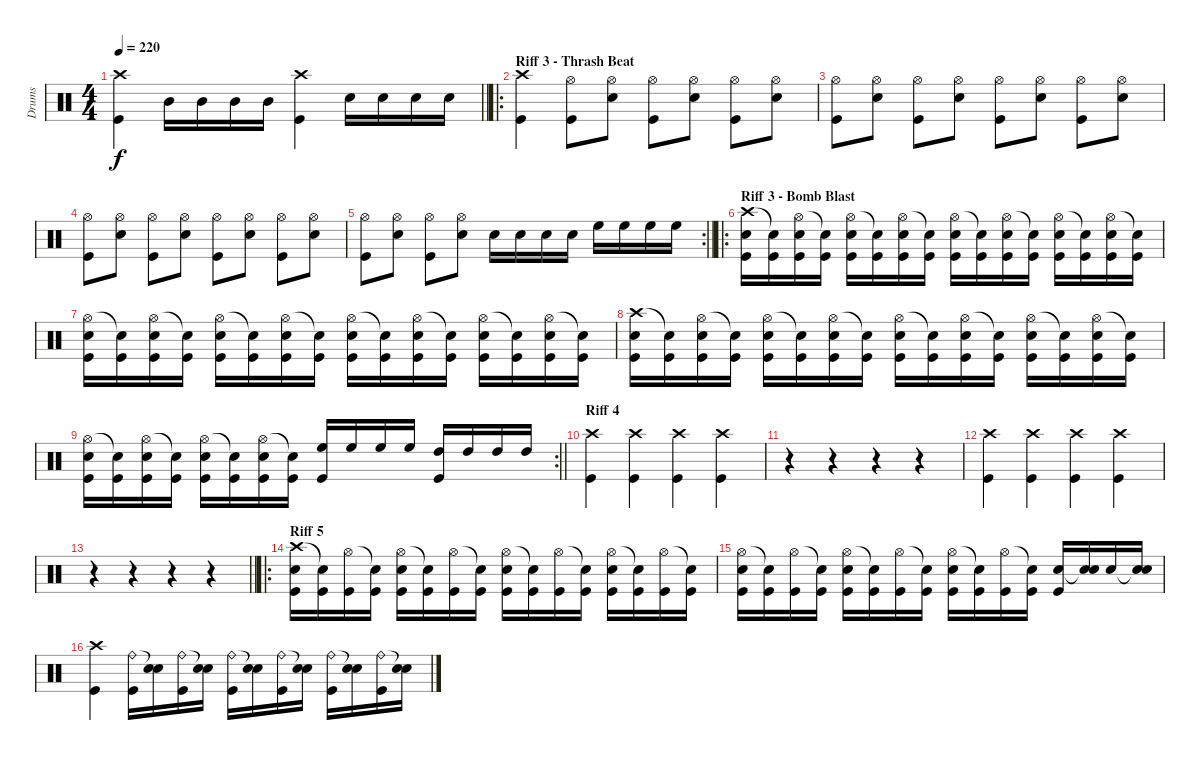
\track ("Drums" "Drums") {instrument percussion}
\staff {score}
\articulation defaults
\ts (4 4)
\tempo 220
\clef neutral
\barLineRight lightlight
\ks c
("Crash high (hit)" "Kick (hit)").4{dy f} "Mid Tom (hit)".16 "Mid Tom (hit)".16 "Mid Tom (hit)".16 "Mid Tom (hit)".16 ("Crash high (hit)" "Kick (hit)").4 "Electric Snare (hit)".16 "Electric Snare (hit)".16 "Electric Snare (hit)".16 "Electric Snare (hit)".16 |
\ro
\section ("" "Riff 3 - Thrash Beat ")
("Crash high (hit)" "Kick (hit)").4 ("Hi-Hat (open)" "Kick (hit)").8 ("Hi-Hat (open)" "Electric Snare (hit)").8 ("Hi-Hat (open)" "Kick (hit)").8 ("Hi-Hat (open)" "Electric Snare (hit)").8 ("Hi-Hat (open)" "Kick (hit)").8 ("Hi-Hat (open)" "Electric Snare (hit)").8 |
("Hi-Hat (open)" "Kick (hit)").8 ("Hi-Hat (open)" "Electric Snare (hit)").8 ("Hi-Hat (open)" "Kick (hit)").8 ("Hi-Hat (open)" "Electric Snare (hit)").8 ("Hi-Hat (open)" "Kick (hit)").8 ("Hi-Hat (open)" "Electric Snare (hit)").8 ("Hi-Hat (open)" "Kick (hit)").8 ("Hi-Hat (open)" "Electric Snare (hit)").8 |
("Hi-Hat (open)" "Kick (hit)").8 ("Hi-Hat (open)" "Electric Snare (hit)").8 ("Hi-Hat (open)" "Kick (hit)").8 ("Hi-Hat (open)" "Electric Snare (hit)").8 ("Hi-Hat (open)" "Kick (hit)").8 ("Hi-Hat (open)" "Electric Snare (hit)").8 ("Hi-Hat (open)" "Kick (hit)").8 ("Hi-Hat (open)" "Electric Snare (hit)").8 |
\rc 2
\barLineRight lightlight
("Hi-Hat (open)" "Kick (hit)").8 ("Hi-Hat (open)" "Electric Snare (hit)").8 ("Hi-Hat (open)" "Kick (hit)").8 ("Hi-Hat (open)" "Electric Snare (hit)").8 "Electric Snare (hit)".16 "Electric Snare (hit)".16 "Electric Snare (hit)".16 "Electric Snare (hit)".16 "High Floor Tom (hit)".16 "High Floor Tom (hit)".16 "High Floor Tom (hit)".16 "High Floor Tom (hit)".16 |
\ro
\section ("" "Riff 3 - Bomb Blast")
("Crash high (hit)" "Electric Snare (hit)" "Kick (hit)").16 ("Snare (hit)"{t} "Kick (hit)").16 ("Hi-Hat (open)" "Electric Snare (hit)" "Kick (hit)").16 ("Snare (hit)"{t} "Kick (hit)").16 ("Hi-Hat (open)" "Electric Snare (hit)" "Kick (hit)").16 ("Snare (hit)"{t} "Kick (hit)").16 ("Hi-Hat (open)" "Electric Snare (hit)" "Kick (hit)").16 ("Snare (hit)"{t} "Kick (hit)").16 ("Hi-Hat (open)" "Electric Snare (hit)" "Kick (hit)").16 ("Snare (hit)"{t} "Kick (hit)").16 ("Hi-Hat (open)" "Electric Snare (hit)" "Kick (hit)").16 ("Snare (hit)"{t} "Kick (hit)").16 ("Hi-Hat (open)" "Electric Snare (hit)" "Kick (hit)").16 ("Snare (hit)"{t} "Kick (hit)").16 ("Hi-Hat (open)" "Electric Snare (hit)" "Kick (hit)").16 ("Snare (hit)"{t} "Kick (hit)").16 |
("Hi-Hat (open)" "Electric Snare (hit)" "Kick (hit)").16 ("Snare (hit)"{t} "Kick (hit)").16 ("Hi-Hat (open)" "Electric Snare (hit)" "Kick (hit)").16 ("Snare (hit)"{t} "Kick (hit)").16 ("Hi-Hat (open)" "Electric Snare (hit)" "Kick (hit)").16 ("Snare (hit)"{t} "Kick (hit)").16 ("Hi-Hat (open)" "Electric Snare (hit)" "Kick (hit)").16 ("Snare (hit)"{t} "Kick (hit)").16 ("Hi-Hat (open)" "Electric Snare (hit)" "Kick (hit)").16 ("Snare (hit)"{t} "Kick (hit)").16 ("Hi-Hat (open)" "Electric Snare (hit)" "Kick (hit)").16 ("Snare (hit)"{t} "Kick (hit)").16 ("Hi-Hat (open)" "Electric Snare (hit)" "Kick (hit)").16 ("Snare (hit)"{t} "Kick (hit)").16 ("Hi-Hat (open)" "Electric Snare (hit)" "Kick (hit)").16 ("Snare (hit)"{t} "Kick (hit)").16 |
("Crash high (hit)" "Electric Snare (hit)" "Kick (hit)").16 ("Snare (hit)"{t} "Kick (hit)").16 ("Hi-Hat (open)" "Electric Snare (hit)" "Kick (hit)").16 ("Snare (hit)"{t} "Kick (hit)").16 ("Hi-Hat (open)" "Electric Snare (hit)" "Kick (hit)").16 ("Snare (hit)"{t} "Kick (hit)").16 ("Hi-Hat (open)" "Electric Snare (hit)" "Kick (hit)").16 ("Snare (hit)"{t} "Kick (hit)").16 ("Hi-Hat (open)" "Electric Snare (hit)" "Kick (hit)").16 ("Snare (hit)"{t} "Kick (hit)").16 ("Hi-Hat (open)" "Electric Snare (hit)" "Kick (hit)").16 ("Snare (hit)"{t} "Kick (hit)").16 ("Hi-Hat (open)" "Electric Snare (hit)" "Kick (hit)").16 ("Snare (hit)"{t} "Kick (hit)").16 ("Hi-Hat (open)" "Electric Snare (hit)" "Kick (hit)").16 ("Snare (hit)"{t} "Kick (hit)").16 |
\rc 2
\barLineRight lightlight
("Hi-Hat (open)" "Electric Snare (hit)" "Kick (hit)").16 ("Snare (hit)"{t} "Kick (hit)").16 ("Hi-Hat (open)" "Electric Snare (hit)" "Kick (hit)").16 ("Snare (hit)"{t} "Kick (hit)").16 ("Hi-Hat (open)" "Electric Snare (hit)" "Kick (hit)").16 ("Snare (hit)"{t} "Kick (hit)").16 ("Hi-Hat (open)" "Electric Snare (hit)" "Kick (hit)").16 ("Snare (hit)"{t} "Kick (hit)").16 ("High Floor Tom (hit)" "Kick (hit)").16 "High Floor Tom (hit)".16 "High Floor Tom (hit)".16 "High Floor Tom (hit)".16 ("High Tom (hit)" "Kick (hit)").16 "High Tom (hit)".16 "High Tom (hit)".16 "High Tom (hit)".16 |
\section ("" "Riff 4")
("Crash high (hit)" "Kick (hit)").4 ("Crash high (hit)" "Kick (hit)").4 ("Crash high (hit)" "Kick (hit)").4 ("Crash high (hit)" "Kick (hit)").4 |
r.4 r.4 r.4 r.4 |
("Crash high (hit)" "Kick (hit)").4 ("Crash high (hit)" "Kick (hit)").4 ("Crash high (hit)" "Kick (hit)").4 ("Crash high (hit)" "Kick (hit)").4 |
\barLineRight lightlight
r.4 r.4 r.4 r.4 |
\ro
\section ("" "Riff 5")
("Crash high (hit)" "Electric Snare (hit)" "Kick (hit)").16 ("Snare (hit)"{t} "Kick (hit)").16 ("Hi-Hat (open)" "Kick (hit)").16 ("Snare (hit)"{t} "Kick (hit)").16 ("Hi-Hat (open)" "Electric Snare (hit)" "Kick (hit)").16 ("Snare (hit)"{t} "Kick (hit)").16 ("Hi-Hat (open)" "Kick (hit)").16 ("Snare (hit)"{t} "Kick (hit)").16 ("Hi-Hat (open)" "Electric Snare (hit)" "Kick (hit)").16 ("Snare (hit)"{t} "Kick (hit)").16 ("Hi-Hat (open)" "Kick (hit)").16 ("Snare (hit)"{t} "Kick (hit)").16 ("Hi-Hat (open)" "Electric Snare (hit)" "Kick (hit)").16 ("Snare (hit)"{t} "Kick (hit)").16 ("Hi-Hat (open)" "Kick (hit)").16 ("Snare (hit)"{t} "Kick (hit)").16 |
("Hi-Hat (open)" "Electric Snare (hit)" "Kick (hit)").16 ("Snare (hit)"{t} "Kick (hit)").16 ("Hi-Hat (open)" "Kick (hit)").16 ("Snare (hit)"{t} "Kick (hit)").16 ("Hi-Hat (open)" "Electric Snare (hit)" "Kick (hit)").16 ("Snare (hit)"{t} "Kick (hit)").16 ("Hi-Hat (open)" "Kick (hit)").16 ("Snare (hit)"{t} "Kick (hit)").16 ("Hi-Hat (open)" "Electric Snare (hit)" "Kick (hit)").16 ("Snare (hit)"{t} "Kick (hit)").16 ("Hi-Hat (open)" "Kick (hit)").16 ("Snare (hit)"{t} "Kick (hit)").16 ("Electric Snare (hit)" "Kick (hit)").16 ("Snare (hit)"{t} "Electric Snare (hit)").16 "Electric Snare (hit)".16 ("Snare (hit)"{t} "Electric Snare (hit)").16 |
("Crash high (hit)" "Kick (hit)").4 ("Ride (bell)" "Kick (hit)").16 ("Snare (hit)"{t} "Electric Snare (hit)").16 ("Ride (bell)" "Kick (hit)").16 ("Snare (hit)"{t} "Electric Snare (hit)").16 ("Ride (bell)" "Kick (hit)").16 ("Snare (hit)"{t} "Electric Snare (hit)").16 ("Ride (bell)" "Kick (hit)").16 ("Snare (hit)"{t} "Electric Snare (hit)").16 ("Ride (bell)" "Kick (hit)").16 ("Snare (hit)"{t} "Electric Snare (hit)").16 ("Ride (bell)" "Kick (hit)").16 ("Snare (hit)"{t} "Electric Snare (hit)").16
